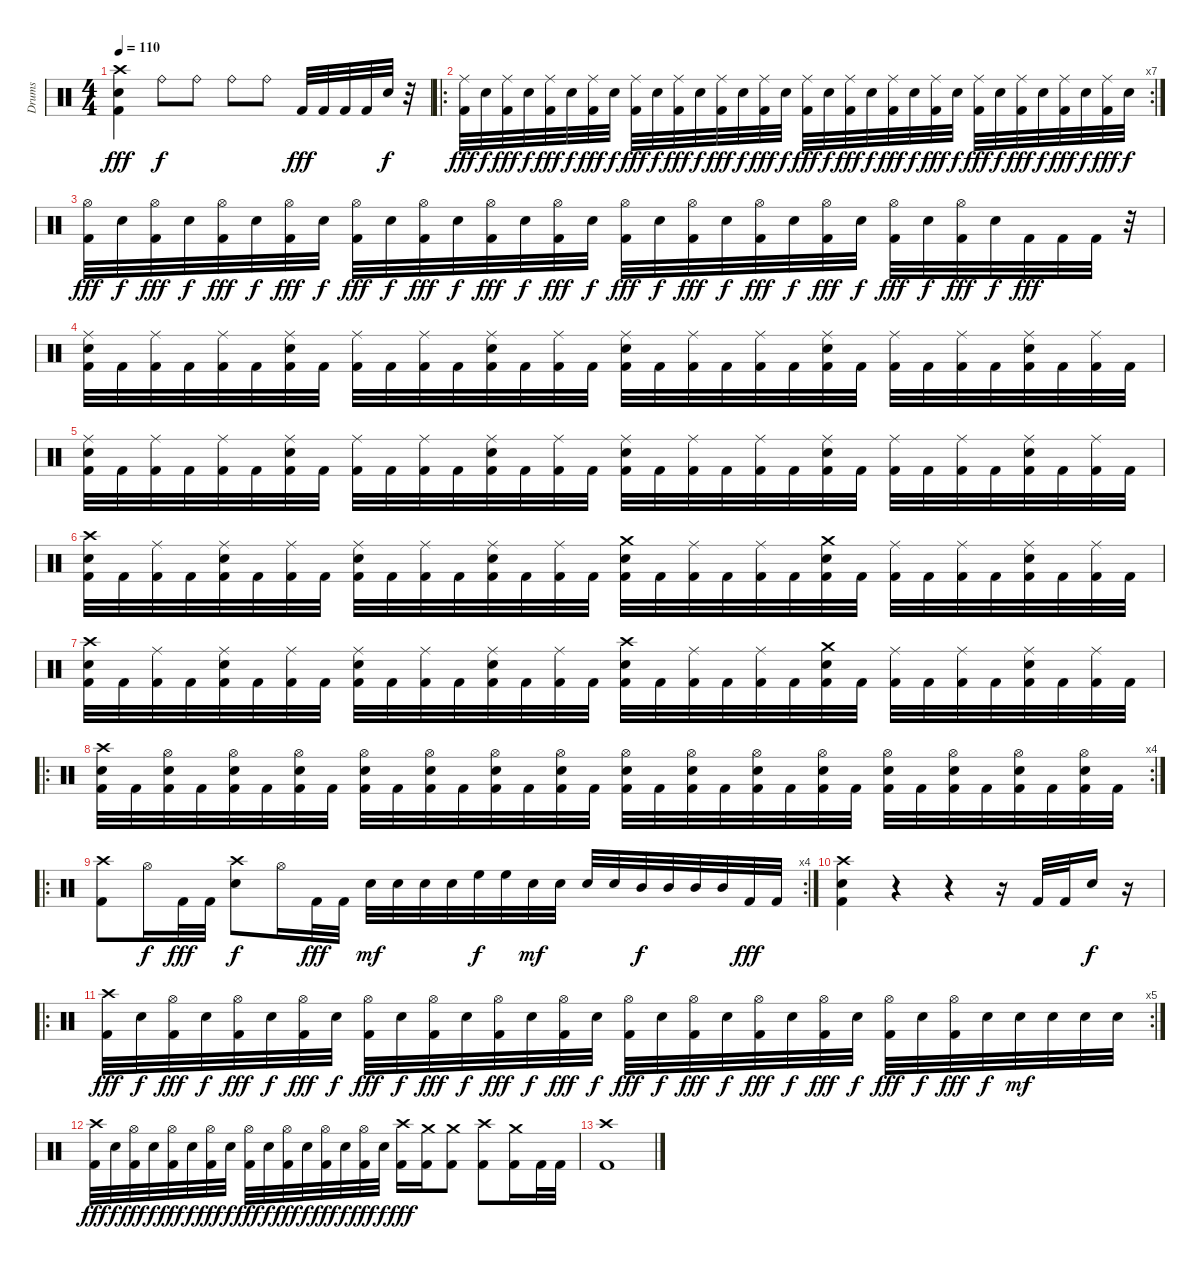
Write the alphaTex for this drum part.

\track ("Drums" "Drums") {instrument percussion}
\staff {score}
\articulation defaults
\ts (4 4)
\tempo 110
\clef neutral
\ks c
("Crash high (hit)" "Electric Snare (hit)" "Kick (hit) 2").4{dy fff} "Ride (bell)".8{dy f} "Ride (bell)".8 "Ride (bell)".8 "Ride (bell)".8 "Kick (hit) 2".32{dy fff} "Kick (hit) 2".32 "Kick (hit) 2".32 "Kick (hit) 2".32 "Electric Snare (hit)".32{dy f} r.32 |
\ro
\rc 7
("Ride (middle)" "Kick (hit) 2").32{dy fff} "Electric Snare (hit)".32{dy f} ("Ride (middle)" "Kick (hit) 2").32{dy fff} "Electric Snare (hit)".32{dy f} ("Ride (middle)" "Kick (hit) 2").32{dy fff} "Electric Snare (hit)".32{dy f} ("Ride (middle)" "Kick (hit) 2").32{dy fff} "Electric Snare (hit)".32{dy f} ("Ride (middle)" "Kick (hit) 2").32{dy fff} "Electric Snare (hit)".32{dy f} ("Ride (middle)" "Kick (hit) 2").32{dy fff} "Electric Snare (hit)".32{dy f} ("Ride (middle)" "Kick (hit) 2").32{dy fff} "Electric Snare (hit)".32{dy f} ("Ride (middle)" "Kick (hit) 2").32{dy fff} "Electric Snare (hit)".32{dy f} ("Ride (middle)" "Kick (hit) 2").32{dy fff} "Electric Snare (hit)".32{dy f} ("Ride (middle)" "Kick (hit) 2").32{dy fff} "Electric Snare (hit)".32{dy f} ("Ride (middle)" "Kick (hit) 2").32{dy fff} "Electric Snare (hit)".32{dy f} ("Ride (middle)" "Kick (hit) 2").32{dy fff} "Electric Snare (hit)".32{dy f} ("Ride (middle)" "Kick (hit) 2").32{dy fff} "Electric Snare (hit)".32{dy f} ("Ride (middle)" "Kick (hit) 2").32{dy fff} "Electric Snare (hit)".32{dy f} ("Ride (middle)" "Kick (hit) 2").32{dy fff} "Electric Snare (hit)".32{dy f} ("Ride (middle)" "Kick (hit) 2").32{dy fff} "Electric Snare (hit)".32{dy f} |
("Hi-Hat (open)" "Kick (hit) 2").32{dy fff} "Electric Snare (hit)".32{dy f} ("Hi-Hat (open)" "Kick (hit) 2").32{dy fff} "Electric Snare (hit)".32{dy f} ("Hi-Hat (open)" "Kick (hit) 2").32{dy fff} "Electric Snare (hit)".32{dy f} ("Hi-Hat (open)" "Kick (hit) 2").32{dy fff} "Electric Snare (hit)".32{dy f} ("Hi-Hat (open)" "Kick (hit) 2").32{dy fff} "Electric Snare (hit)".32{dy f} ("Hi-Hat (open)" "Kick (hit) 2").32{dy fff} "Electric Snare (hit)".32{dy f} ("Hi-Hat (open)" "Kick (hit) 2").32{dy fff} "Electric Snare (hit)".32{dy f} ("Hi-Hat (open)" "Kick (hit) 2").32{dy fff} "Electric Snare (hit)".32{dy f} ("Hi-Hat (open)" "Kick (hit) 2").32{dy fff} "Electric Snare (hit)".32{dy f} ("Hi-Hat (open)" "Kick (hit) 2").32{dy fff} "Electric Snare (hit)".32{dy f} ("Hi-Hat (open)" "Kick (hit) 2").32{dy fff} "Electric Snare (hit)".32{dy f} ("Hi-Hat (open)" "Kick (hit) 2").32{dy fff} "Electric Snare (hit)".32{dy f} ("Hi-Hat (open)" "Kick (hit) 2").32{dy fff} "Electric Snare (hit)".32{dy f} ("Hi-Hat (open)" "Kick (hit) 2").32{dy fff} "Electric Snare (hit)".32{dy f} "Kick (hit) 2".32{dy fff} "Kick (hit) 2".32 "Kick (hit) 2".32 r.32 |
("Ride (middle)" "Electric Snare (hit)" "Kick (hit) 2").32 "Kick (hit) 2".32 ("Ride (middle)" "Kick (hit) 2").32 "Kick (hit) 2".32 ("Ride (middle)" "Kick (hit) 2").32 "Kick (hit) 2".32 ("Ride (middle)" "Electric Snare (hit)" "Kick (hit) 2").32 "Kick (hit) 2".32 ("Ride (middle)" "Kick (hit) 2").32 "Kick (hit) 2".32 ("Ride (middle)" "Kick (hit) 2").32 "Kick (hit) 2".32 ("Ride (middle)" "Electric Snare (hit)" "Kick (hit) 2").32 "Kick (hit) 2".32 ("Ride (middle)" "Kick (hit) 2").32 "Kick (hit) 2".32 ("Ride (middle)" "Electric Snare (hit)" "Kick (hit) 2").32 "Kick (hit) 2".32 ("Ride (middle)" "Kick (hit) 2").32 "Kick (hit) 2".32 ("Ride (middle)" "Kick (hit) 2").32 "Kick (hit) 2".32 ("Ride (middle)" "Electric Snare (hit)" "Kick (hit) 2").32 "Kick (hit) 2".32 ("Ride (middle)" "Kick (hit) 2").32 "Kick (hit) 2".32 ("Ride (middle)" "Kick (hit) 2").32 "Kick (hit) 2".32 ("Ride (middle)" "Electric Snare (hit)" "Kick (hit) 2").32 "Kick (hit) 2".32 ("Ride (middle)" "Kick (hit) 2").32 "Kick (hit) 2".32 |
("Ride (middle)" "Electric Snare (hit)" "Kick (hit) 2").32 "Kick (hit) 2".32 ("Ride (middle)" "Kick (hit) 2").32 "Kick (hit) 2".32 ("Ride (middle)" "Kick (hit) 2").32 "Kick (hit) 2".32 ("Ride (middle)" "Electric Snare (hit)" "Kick (hit) 2").32 "Kick (hit) 2".32 ("Ride (middle)" "Kick (hit) 2").32 "Kick (hit) 2".32 ("Ride (middle)" "Kick (hit) 2").32 "Kick (hit) 2".32 ("Ride (middle)" "Electric Snare (hit)" "Kick (hit) 2").32 "Kick (hit) 2".32 ("Ride (middle)" "Kick (hit) 2").32 "Kick (hit) 2".32 ("Ride (middle)" "Electric Snare (hit)" "Kick (hit) 2").32 "Kick (hit) 2".32 ("Ride (middle)" "Kick (hit) 2").32 "Kick (hit) 2".32 ("Ride (middle)" "Kick (hit) 2").32 "Kick (hit) 2".32 ("Ride (middle)" "Electric Snare (hit)" "Kick (hit) 2").32 "Kick (hit) 2".32 ("Ride (middle)" "Kick (hit) 2").32 "Kick (hit) 2".32 ("Ride (middle)" "Kick (hit) 2").32 "Kick (hit) 2".32 ("Ride (middle)" "Electric Snare (hit)" "Kick (hit) 2").32 "Kick (hit) 2".32 ("Ride (middle)" "Kick (hit) 2").32 "Kick (hit) 2".32 |
("Crash high (hit)" "Electric Snare (hit)" "Kick (hit) 2").32 "Kick (hit) 2".32 ("Ride (middle)" "Kick (hit) 2").32 "Kick (hit) 2".32 ("Ride (middle)" "Electric Snare (hit)" "Kick (hit) 2").32 "Kick (hit) 2".32 ("Ride (middle)" "Kick (hit) 2").32 "Kick (hit) 2".32 ("Ride (middle)" "Electric Snare (hit)" "Kick (hit) 2").32 "Kick (hit) 2".32 ("Ride (middle)" "Kick (hit) 2").32 "Kick (hit) 2".32 ("Ride (middle)" "Electric Snare (hit)" "Kick (hit) 2").32 "Kick (hit) 2".32 ("Ride (middle)" "Kick (hit) 2").32 "Kick (hit) 2".32 ("Crash medium (hit)" "Electric Snare (hit)" "Kick (hit) 2").32 "Kick (hit) 2".32 ("Ride (middle)" "Kick (hit) 2").32 "Kick (hit) 2".32 ("Ride (middle)" "Kick (hit) 2").32 "Kick (hit) 2".32 ("Crash medium (hit)" "Electric Snare (hit)" "Kick (hit) 2").32 "Kick (hit) 2".32 ("Ride (middle)" "Kick (hit) 2").32 "Kick (hit) 2".32 ("Ride (middle)" "Kick (hit) 2").32 "Kick (hit) 2".32 ("Ride (middle)" "Electric Snare (hit)" "Kick (hit) 2").32 "Kick (hit) 2".32 ("Ride (middle)" "Kick (hit) 2").32 "Kick (hit) 2".32 |
("Crash high (hit)" "Electric Snare (hit)" "Kick (hit) 2").32 "Kick (hit) 2".32 ("Ride (middle)" "Kick (hit) 2").32 "Kick (hit) 2".32 ("Ride (middle)" "Electric Snare (hit)" "Kick (hit) 2").32 "Kick (hit) 2".32 ("Ride (middle)" "Kick (hit) 2").32 "Kick (hit) 2".32 ("Ride (middle)" "Electric Snare (hit)" "Kick (hit) 2").32 "Kick (hit) 2".32 ("Ride (middle)" "Kick (hit) 2").32 "Kick (hit) 2".32 ("Ride (middle)" "Electric Snare (hit)" "Kick (hit) 2").32 "Kick (hit) 2".32 ("Ride (middle)" "Kick (hit) 2").32 "Kick (hit) 2".32 ("Crash high (hit)" "Electric Snare (hit)" "Kick (hit) 2").32 "Kick (hit) 2".32 ("Ride (middle)" "Kick (hit) 2").32 "Kick (hit) 2".32 ("Ride (middle)" "Kick (hit) 2").32 "Kick (hit) 2".32 ("Crash medium (hit)" "Electric Snare (hit)" "Kick (hit) 2").32 "Kick (hit) 2".32 ("Ride (middle)" "Kick (hit) 2").32 "Kick (hit) 2".32 ("Ride (middle)" "Kick (hit) 2").32 "Kick (hit) 2".32 ("Ride (middle)" "Electric Snare (hit)" "Kick (hit) 2").32 "Kick (hit) 2".32 ("Ride (middle)" "Kick (hit) 2").32 "Kick (hit) 2".32 |
\ro
\rc 4
("Crash high (hit)" "Electric Snare (hit)" "Kick (hit) 2").32 "Kick (hit) 2".32 ("Hi-Hat (open)" "Electric Snare (hit)" "Kick (hit) 2").32 "Kick (hit) 2".32 ("Hi-Hat (open)" "Electric Snare (hit)" "Kick (hit) 2").32 "Kick (hit) 2".32 ("Hi-Hat (open)" "Electric Snare (hit)" "Kick (hit) 2").32 "Kick (hit) 2".32 ("Hi-Hat (open)" "Electric Snare (hit)" "Kick (hit) 2").32 "Kick (hit) 2".32 ("Hi-Hat (open)" "Electric Snare (hit)" "Kick (hit) 2").32 "Kick (hit) 2".32 ("Hi-Hat (open)" "Electric Snare (hit)" "Kick (hit) 2").32 "Kick (hit) 2".32 ("Hi-Hat (open)" "Electric Snare (hit)" "Kick (hit) 2").32 "Kick (hit) 2".32 ("Hi-Hat (open)" "Electric Snare (hit)" "Kick (hit) 2").32 "Kick (hit) 2".32 ("Hi-Hat (open)" "Electric Snare (hit)" "Kick (hit) 2").32 "Kick (hit) 2".32 ("Hi-Hat (open)" "Electric Snare (hit)" "Kick (hit) 2").32 "Kick (hit) 2".32 ("Hi-Hat (open)" "Electric Snare (hit)" "Kick (hit) 2").32 "Kick (hit) 2".32 ("Hi-Hat (open)" "Electric Snare (hit)" "Kick (hit) 2").32 "Kick (hit) 2".32 ("Hi-Hat (open)" "Electric Snare (hit)" "Kick (hit) 2").32 "Kick (hit) 2".32 ("Hi-Hat (open)" "Electric Snare (hit)" "Kick (hit) 2").32 "Kick (hit) 2".32 ("Hi-Hat (open)" "Electric Snare (hit)" "Kick (hit) 2").32 "Kick (hit) 2".32 |
\ro
\rc 4
("Crash high (hit)" "Kick (hit) 2").8 "Hi-Hat (open)".16{dy f} "Kick (hit) 2".32{dy fff} "Kick (hit) 2".32 ("Crash high (hit)" "Electric Snare (hit)").8{dy f} "Hi-Hat (open)".16 "Kick (hit) 2".32{dy fff} "Kick (hit) 2".32 "Electric Snare (hit)".32{dy mf} "Electric Snare (hit)".32 "Electric Snare (hit)".32 "Electric Snare (hit)".32 "High Floor Tom (hit)".32{dy f} "High Floor Tom (hit)".32 "Electric Snare (hit)".32{dy mf} "Electric Snare (hit)".32 "Electric Snare (hit)".32 "Electric Snare (hit)".32 "Mid Tom (hit)".32{dy f} "Mid Tom (hit)".32 "Mid Tom (hit)".32 "Mid Tom (hit)".32 "Kick (hit) 2".32{dy fff} "Kick (hit) 2".32 |
("Crash high (hit)" "Electric Snare (hit)" "Kick (hit) 2").4 r.4 r.4 r.16 "Kick (hit) 2".32 "Kick (hit) 2".32 "Electric Snare (hit)".16{dy f} r.16 |
\ro
\rc 5
("Crash high (hit)" "Kick (hit) 2").32{dy fff} "Electric Snare (hit)".32{dy f} ("Hi-Hat (open)" "Kick (hit) 2").32{dy fff} "Electric Snare (hit)".32{dy f} ("Hi-Hat (open)" "Kick (hit) 2").32{dy fff} "Electric Snare (hit)".32{dy f} ("Hi-Hat (open)" "Kick (hit) 2").32{dy fff} "Electric Snare (hit)".32{dy f} ("Hi-Hat (open)" "Kick (hit) 2").32{dy fff} "Electric Snare (hit)".32{dy f} ("Hi-Hat (open)" "Kick (hit) 2").32{dy fff} "Electric Snare (hit)".32{dy f} ("Hi-Hat (open)" "Kick (hit) 2").32{dy fff} "Electric Snare (hit)".32{dy f} ("Hi-Hat (open)" "Kick (hit) 2").32{dy fff} "Electric Snare (hit)".32{dy f} ("Hi-Hat (open)" "Kick (hit) 2").32{dy fff} "Electric Snare (hit)".32{dy f} ("Hi-Hat (open)" "Kick (hit) 2").32{dy fff} "Electric Snare (hit)".32{dy f} ("Hi-Hat (open)" "Kick (hit) 2").32{dy fff} "Electric Snare (hit)".32{dy f} ("Hi-Hat (open)" "Kick (hit) 2").32{dy fff} "Electric Snare (hit)".32{dy f} ("Hi-Hat (open)" "Kick (hit) 2").32{dy fff} "Electric Snare (hit)".32{dy f} ("Hi-Hat (open)" "Kick (hit) 2").32{dy fff} "Electric Snare (hit)".32{dy f} "Electric Snare (hit)".32{dy mf} "Electric Snare (hit)".32 "Electric Snare (hit)".32 "Electric Snare (hit)".32 |
("Crash high (hit)" "Kick (hit) 2").32{dy fff} "Electric Snare (hit)".32{dy f} ("Hi-Hat (open)" "Kick (hit) 2").32{dy fff} "Electric Snare (hit)".32{dy f} ("Hi-Hat (open)" "Kick (hit) 2").32{dy fff} "Electric Snare (hit)".32{dy f} ("Hi-Hat (open)" "Kick (hit) 2").32{dy fff} "Electric Snare (hit)".32{dy f} ("Hi-Hat (open)" "Kick (hit) 2").32{dy fff} "Electric Snare (hit)".32{dy f} ("Hi-Hat (open)" "Kick (hit) 2").32{dy fff} "Electric Snare (hit)".32{dy f} ("Hi-Hat (open)" "Kick (hit) 2").32{dy fff} "Electric Snare (hit)".32{dy f} ("Hi-Hat (open)" "Kick (hit) 2").32{dy fff} "Electric Snare (hit)".32{dy f} ("Crash high (hit)" "Kick (hit) 2").16{dy fff} ("Crash medium (hit)" "Kick (hit) 2").16 ("Crash medium (hit)" "Kick (hit) 2").8 ("Crash high (hit)" "Kick (hit) 2").8 ("Crash medium (hit)" "Kick (hit) 2").16 "Kick (hit) 2".32 "Kick (hit) 2".32 |
("Crash high (hit)" "Kick (hit) 2").1
